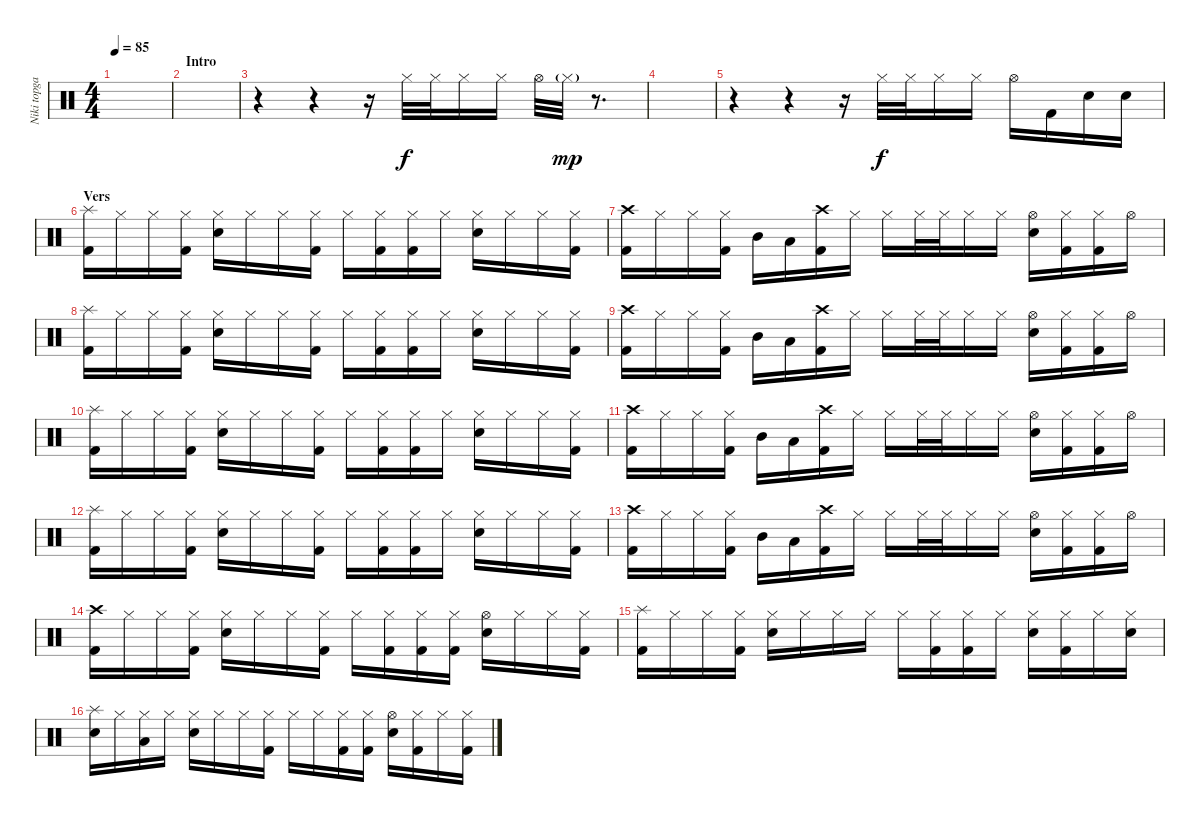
\track ("Niki topgaard" "Niki topga") {instrument percussion}
\staff {score}
\articulation defaults
\ts (4 4)
\tempo 85
\clef neutral
\ks c
|
\section ("" "Intro")
|
r.4 r.4 r.16 "Hi-Hat (closed)".32 "Hi-Hat (closed)".32 "Hi-Hat (closed)".16 "Hi-Hat (closed)".16 "Hi-Hat (open)".32 "Hi-Hat (closed)"{g}.32{dy mp} r.8{d} |
|
r.4 r.4 r.16 "Hi-Hat (closed)".32{dy f} "Hi-Hat (closed)".32 "Hi-Hat (closed)".16 "Hi-Hat (closed)".16 "Hi-Hat (open)".16 "Kick (hit) 2".16 "Snare (hit) 2".16 "Snare (hit) 2".16 |
\section ("" "Vers")
("Splash (hit)" "Kick (hit) 2").16 "Hi-Hat (closed)".16 "Hi-Hat (closed)".16 ("Hi-Hat (closed)" "Kick (hit) 2").16 ("Hi-Hat (closed)" "Snare (hit) 2").16 "Hi-Hat (closed)".16 "Hi-Hat (closed)".16 ("Hi-Hat (closed)" "Kick (hit) 2").16 "Hi-Hat (closed)".16 ("Hi-Hat (closed)" "Kick (hit) 2").16 ("Hi-Hat (closed)" "Kick (hit) 2").16 "Hi-Hat (closed)".16 ("Hi-Hat (closed)" "Snare (hit) 2").16 "Hi-Hat (closed)".16 "Hi-Hat (closed)".16 ("Hi-Hat (closed)" "Kick (hit) 2").16 |
("Crash high (hit)" "Kick (hit) 2").16 "Hi-Hat (closed)".16 "Hi-Hat (closed)".16 ("Hi-Hat (closed)" "Kick (hit) 2").16 "Mid Tom (hit)".16 "Low Tom (hit)".16 ("Crash high (hit)" "Kick (hit) 2").16 "Hi-Hat (closed)".16 "Hi-Hat (closed)".16 "Hi-Hat (closed)".32 "Hi-Hat (closed)".32 "Hi-Hat (closed)".16 "Hi-Hat (closed)".16 ("Hi-Hat (open)" "Snare (hit) 2").16 ("Hi-Hat (closed)" "Kick (hit) 2").16 ("Hi-Hat (closed)" "Kick (hit) 2").16 "Hi-Hat (open)".16 |
("Splash (hit)" "Kick (hit) 2").16 "Hi-Hat (closed)".16 "Hi-Hat (closed)".16 ("Hi-Hat (closed)" "Kick (hit) 2").16 ("Hi-Hat (closed)" "Snare (hit) 2").16 "Hi-Hat (closed)".16 "Hi-Hat (closed)".16 ("Hi-Hat (closed)" "Kick (hit) 2").16 "Hi-Hat (closed)".16 ("Hi-Hat (closed)" "Kick (hit) 2").16 ("Hi-Hat (closed)" "Kick (hit) 2").16 "Hi-Hat (closed)".16 ("Hi-Hat (closed)" "Snare (hit) 2").16 "Hi-Hat (closed)".16 "Hi-Hat (closed)".16 ("Hi-Hat (closed)" "Kick (hit) 2").16 |
("Crash high (hit)" "Kick (hit) 2").16 "Hi-Hat (closed)".16 "Hi-Hat (closed)".16 ("Hi-Hat (closed)" "Kick (hit) 2").16 "Mid Tom (hit)".16 "Low Tom (hit)".16 ("Crash high (hit)" "Kick (hit) 2").16 "Hi-Hat (closed)".16 "Hi-Hat (closed)".16 "Hi-Hat (closed)".32 "Hi-Hat (closed)".32 "Hi-Hat (closed)".16 "Hi-Hat (closed)".16 ("Hi-Hat (open)" "Snare (hit) 2").16 ("Hi-Hat (closed)" "Kick (hit) 2").16 ("Hi-Hat (closed)" "Kick (hit) 2").16 "Hi-Hat (open)".16 |
("Splash (hit)" "Kick (hit) 2").16 "Hi-Hat (closed)".16 "Hi-Hat (closed)".16 ("Hi-Hat (closed)" "Kick (hit) 2").16 ("Hi-Hat (closed)" "Snare (hit) 2").16 "Hi-Hat (closed)".16 "Hi-Hat (closed)".16 ("Hi-Hat (closed)" "Kick (hit) 2").16 "Hi-Hat (closed)".16 ("Hi-Hat (closed)" "Kick (hit) 2").16 ("Hi-Hat (closed)" "Kick (hit) 2").16 "Hi-Hat (closed)".16 ("Hi-Hat (closed)" "Snare (hit) 2").16 "Hi-Hat (closed)".16 "Hi-Hat (closed)".16 ("Hi-Hat (closed)" "Kick (hit) 2").16 |
("Crash high (hit)" "Kick (hit) 2").16 "Hi-Hat (closed)".16 "Hi-Hat (closed)".16 ("Hi-Hat (closed)" "Kick (hit) 2").16 "Mid Tom (hit)".16 "Low Tom (hit)".16 ("Crash high (hit)" "Kick (hit) 2").16 "Hi-Hat (closed)".16 "Hi-Hat (closed)".16 "Hi-Hat (closed)".32 "Hi-Hat (closed)".32 "Hi-Hat (closed)".16 "Hi-Hat (closed)".16 ("Hi-Hat (open)" "Snare (hit) 2").16 ("Hi-Hat (closed)" "Kick (hit) 2").16 ("Hi-Hat (closed)" "Kick (hit) 2").16 "Hi-Hat (open)".16 |
("Splash (hit)" "Kick (hit) 2").16 "Hi-Hat (closed)".16 "Hi-Hat (closed)".16 ("Hi-Hat (closed)" "Kick (hit) 2").16 ("Hi-Hat (closed)" "Snare (hit) 2").16 "Hi-Hat (closed)".16 "Hi-Hat (closed)".16 ("Hi-Hat (closed)" "Kick (hit) 2").16 "Hi-Hat (closed)".16 ("Hi-Hat (closed)" "Kick (hit) 2").16 ("Hi-Hat (closed)" "Kick (hit) 2").16 "Hi-Hat (closed)".16 ("Hi-Hat (closed)" "Snare (hit) 2").16 "Hi-Hat (closed)".16 "Hi-Hat (closed)".16 ("Hi-Hat (closed)" "Kick (hit) 2").16 |
("Crash high (hit)" "Kick (hit) 2").16 "Hi-Hat (closed)".16 "Hi-Hat (closed)".16 ("Hi-Hat (closed)" "Kick (hit) 2").16 "Mid Tom (hit)".16 "Low Tom (hit)".16 ("Crash high (hit)" "Kick (hit) 2").16 "Hi-Hat (closed)".16 "Hi-Hat (closed)".16 "Hi-Hat (closed)".32 "Hi-Hat (closed)".32 "Hi-Hat (closed)".16 "Hi-Hat (closed)".16 ("Hi-Hat (open)" "Snare (hit) 2").16 ("Hi-Hat (closed)" "Kick (hit) 2").16 ("Hi-Hat (closed)" "Kick (hit) 2").16 "Hi-Hat (open)".16 |
("Crash high (hit)" "Kick (hit) 2").16 "Hi-Hat (closed)".16 "Hi-Hat (closed)".16 ("Hi-Hat (closed)" "Kick (hit) 2").16 ("Hi-Hat (closed)" "Snare (hit) 2").16 "Hi-Hat (closed)".16 "Hi-Hat (closed)".16 ("Hi-Hat (closed)" "Kick (hit) 2").16 "Hi-Hat (closed)".16 ("Hi-Hat (closed)" "Kick (hit) 2").16 ("Hi-Hat (closed)" "Kick (hit) 2").16 ("Hi-Hat (closed)" "Kick (hit) 2").16 ("Hi-Hat (open)" "Snare (hit) 2").16 "Hi-Hat (closed)".16 "Hi-Hat (closed)".16 ("Hi-Hat (closed)" "Kick (hit) 2").16 |
("Splash (hit)" "Kick (hit) 2").16 "Hi-Hat (closed)".16 "Hi-Hat (closed)".16 ("Hi-Hat (closed)" "Kick (hit) 2").16 ("Hi-Hat (closed)" "Snare (hit) 2").16 "Hi-Hat (closed)".16 "Hi-Hat (closed)".16 "Hi-Hat (closed)".16 "Hi-Hat (closed)".16 ("Hi-Hat (closed)" "Kick (hit) 2").16 ("Hi-Hat (closed)" "Kick (hit) 2").16 "Hi-Hat (closed)".16 ("Hi-Hat (closed)" "Snare (hit) 2").16 ("Hi-Hat (closed)" "Kick (hit) 2").16 "Hi-Hat (closed)".16 ("Hi-Hat (closed)" "Snare (hit) 2").16 |
("Splash (hit)" "Snare (hit) 2").16 "Hi-Hat (closed)".16 ("Hi-Hat (closed)" "Low Tom (hit)").16 "Hi-Hat (closed)".16 ("Hi-Hat (closed)" "Snare (hit) 2").16 "Hi-Hat (closed)".16 "Hi-Hat (closed)".16 ("Hi-Hat (closed)" "Kick (hit) 2").16 "Hi-Hat (closed)".16 "Hi-Hat (closed)".16 ("Hi-Hat (closed)" "Kick (hit) 2").16 ("Hi-Hat (closed)" "Kick (hit) 2").16 ("Hi-Hat (open)" "Snare (hit) 2").16 ("Hi-Hat (closed)" "Kick (hit) 2").16 "Hi-Hat (closed)".16 ("Hi-Hat (closed)" "Kick (hit) 2").16
